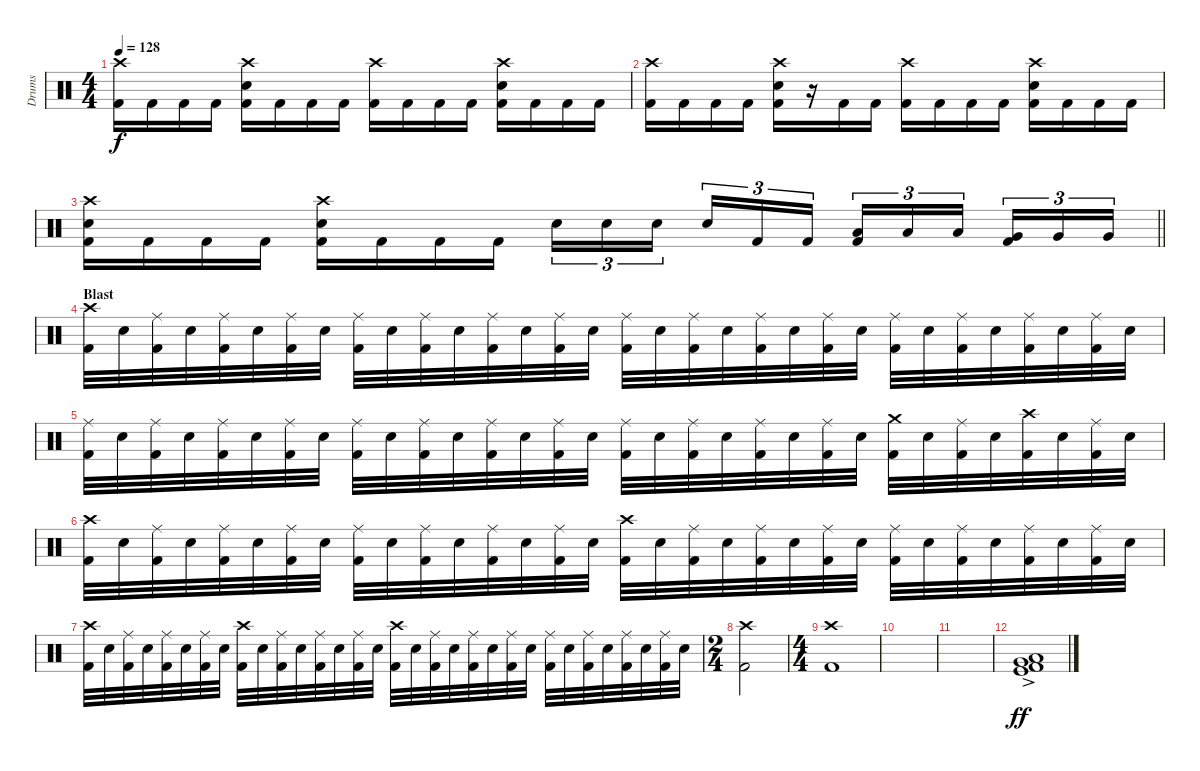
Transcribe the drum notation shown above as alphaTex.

\track ("Drums" "Drums") {instrument percussion}
\staff {score}
\articulation defaults
\ts (4 4)
\tempo 128
\clef neutral
\ks c
("Crash high (hit)" "Kick (hit) 2").16{dy f} "Kick (hit) 2".16 "Kick (hit) 2".16 "Kick (hit) 2".16 ("Crash high (hit)" "Electric Snare (hit)" "Kick (hit) 2").16 "Kick (hit) 2".16 "Kick (hit) 2".16 "Kick (hit) 2".16 ("Crash high (hit)" "Kick (hit) 2").16 "Kick (hit) 2".16 "Kick (hit) 2".16 "Kick (hit) 2".16 ("Crash high (hit)" "Electric Snare (hit)" "Kick (hit) 2").16 "Kick (hit) 2".16 "Kick (hit) 2".16 "Kick (hit) 2".16 |
("Crash high (hit)" "Kick (hit) 2").16 "Kick (hit) 2".16 "Kick (hit) 2".16 "Kick (hit) 2".16 ("Crash high (hit)" "Electric Snare (hit)" "Kick (hit) 2").16 r.16 "Kick (hit) 2".16 "Kick (hit) 2".16 ("Crash high (hit)" "Kick (hit) 2").16 "Kick (hit) 2".16 "Kick (hit) 2".16 "Kick (hit) 2".16 ("Crash high (hit)" "Electric Snare (hit)" "Kick (hit) 2").16 "Kick (hit) 2".16 "Kick (hit) 2".16 "Kick (hit) 2".16 |
\barLineRight lightlight
("Crash high (hit)" "Electric Snare (hit)" "Kick (hit) 2").16 "Kick (hit) 2".16 "Kick (hit) 2".16 "Kick (hit) 2".16 ("Crash high (hit)" "Electric Snare (hit)" "Kick (hit) 2").16 "Kick (hit) 2".16 "Kick (hit) 2".16 "Kick (hit) 2".16 "Electric Snare (hit)".16{tu (3 2)} "Electric Snare (hit)".16{tu (3 2)} "Electric Snare (hit)".16{tu (3 2)} "Electric Snare (hit)".16{tu (3 2)} "Kick (hit) 2".16{tu (3 2)} "Kick (hit) 2".16{tu (3 2)} ("Low Tom (hit)" "Kick (hit) 2").16{tu (3 2)} "Low Tom (hit)".16{tu (3 2)} "Low Tom (hit)".16{tu (3 2)} ("Very Low Tom (hit)" "Kick (hit) 2").16{tu (3 2)} "Very Low Tom (hit)".16{tu (3 2)} "Very Low Tom (hit)".16{tu (3 2)} |
\section ("" "Blast")
("Crash high (hit)" "Kick (hit) 2").32 "Electric Snare (hit)".32 ("Ride (middle)" "Kick (hit) 2").32 "Electric Snare (hit)".32 ("Ride (middle)" "Kick (hit) 2").32 "Electric Snare (hit)".32 ("Ride (middle)" "Kick (hit) 2").32 "Electric Snare (hit)".32 ("Ride (middle)" "Kick (hit) 2").32 "Electric Snare (hit)".32 ("Ride (middle)" "Kick (hit) 2").32 "Electric Snare (hit)".32 ("Ride (middle)" "Kick (hit) 2").32 "Electric Snare (hit)".32 ("Ride (middle)" "Kick (hit) 2").32 "Electric Snare (hit)".32 ("Ride (middle)" "Kick (hit) 2").32 "Electric Snare (hit)".32 ("Ride (middle)" "Kick (hit) 2").32 "Electric Snare (hit)".32 ("Ride (middle)" "Kick (hit) 2").32 "Electric Snare (hit)".32 ("Ride (middle)" "Kick (hit) 2").32 "Electric Snare (hit)".32 ("Ride (middle)" "Kick (hit) 2").32 "Electric Snare (hit)".32 ("Ride (middle)" "Kick (hit) 2").32 "Electric Snare (hit)".32 ("Ride (middle)" "Kick (hit) 2").32 "Electric Snare (hit)".32 ("Ride (middle)" "Kick (hit) 2").32 "Electric Snare (hit)".32 |
("Ride (middle)" "Kick (hit) 2").32 "Electric Snare (hit)".32 ("Ride (middle)" "Kick (hit) 2").32 "Electric Snare (hit)".32 ("Ride (middle)" "Kick (hit) 2").32 "Electric Snare (hit)".32 ("Ride (middle)" "Kick (hit) 2").32 "Electric Snare (hit)".32 ("Ride (middle)" "Kick (hit) 2").32 "Electric Snare (hit)".32 ("Ride (middle)" "Kick (hit) 2").32 "Electric Snare (hit)".32 ("Ride (middle)" "Kick (hit) 2").32 "Electric Snare (hit)".32 ("Ride (middle)" "Kick (hit) 2").32 "Electric Snare (hit)".32 ("Ride (middle)" "Kick (hit) 2").32 "Electric Snare (hit)".32 ("Ride (middle)" "Kick (hit) 2").32 "Electric Snare (hit)".32 ("Ride (middle)" "Kick (hit) 2").32 "Electric Snare (hit)".32 ("Ride (middle)" "Kick (hit) 2").32 "Electric Snare (hit)".32 ("Crash medium (hit)" "Kick (hit) 2").32 "Electric Snare (hit)".32 ("Ride (middle)" "Kick (hit) 2").32 "Electric Snare (hit)".32 ("Crash high (hit)" "Kick (hit) 2").32 "Electric Snare (hit)".32 ("Ride (middle)" "Kick (hit) 2").32 "Electric Snare (hit)".32 |
("Crash high (hit)" "Kick (hit) 2").32 "Electric Snare (hit)".32 ("Ride (middle)" "Kick (hit) 2").32 "Electric Snare (hit)".32 ("Ride (middle)" "Kick (hit) 2").32 "Electric Snare (hit)".32 ("Ride (middle)" "Kick (hit) 2").32 "Electric Snare (hit)".32 ("Ride (middle)" "Kick (hit) 2").32 "Electric Snare (hit)".32 ("Ride (middle)" "Kick (hit) 2").32 "Electric Snare (hit)".32 ("Ride (middle)" "Kick (hit) 2").32 "Electric Snare (hit)".32 ("Ride (middle)" "Kick (hit) 2").32 "Electric Snare (hit)".32 ("Crash high (hit)" "Kick (hit) 2").32 "Electric Snare (hit)".32 ("Ride (middle)" "Kick (hit) 2").32 "Electric Snare (hit)".32 ("Ride (middle)" "Kick (hit) 2").32 "Electric Snare (hit)".32 ("Ride (middle)" "Kick (hit) 2").32 "Electric Snare (hit)".32 ("Ride (middle)" "Kick (hit) 2").32 "Electric Snare (hit)".32 ("Ride (middle)" "Kick (hit) 2").32 "Electric Snare (hit)".32 ("Ride (middle)" "Kick (hit) 2").32 "Electric Snare (hit)".32 ("Ride (middle)" "Kick (hit) 2").32 "Electric Snare (hit)".32 |
("Crash high (hit)" "Kick (hit) 2").32 "Electric Snare (hit)".32 ("Ride (middle)" "Kick (hit) 2").32 "Electric Snare (hit)".32 ("Ride (middle)" "Kick (hit) 2").32 "Electric Snare (hit)".32 ("Ride (middle)" "Kick (hit) 2").32 "Electric Snare (hit)".32 ("Crash high (hit)" "Kick (hit) 2").32 "Electric Snare (hit)".32 ("Ride (middle)" "Kick (hit) 2").32 "Electric Snare (hit)".32 ("Ride (middle)" "Kick (hit) 2").32 "Electric Snare (hit)".32 ("Ride (middle)" "Kick (hit) 2").32 "Electric Snare (hit)".32 ("Crash high (hit)" "Kick (hit) 2").32 "Electric Snare (hit)".32 ("Ride (middle)" "Kick (hit) 2").32 "Electric Snare (hit)".32 ("Ride (middle)" "Kick (hit) 2").32 "Electric Snare (hit)".32 ("Ride (middle)" "Kick (hit) 2").32 "Electric Snare (hit)".32 ("Ride (middle)" "Kick (hit) 2").32 "Electric Snare (hit)".32 ("Ride (middle)" "Kick (hit) 2").32 "Electric Snare (hit)".32 ("Ride (middle)" "Kick (hit) 2").32 "Electric Snare (hit)".32 ("Ride (middle)" "Kick (hit) 2").32 "Electric Snare (hit)".32 |
\ts (2 4)
("Crash high (hit)" "Kick (hit) 2").2 |
\ts (4 4)
("Crash high (hit)" "Kick (hit) 2").1 |
|
|
("Very Low Tom (hit)"{ac} "Low Floor Tom (hit)"{ac} "Kick (hit)" "Kick (hit) 2").1{dy ff}
